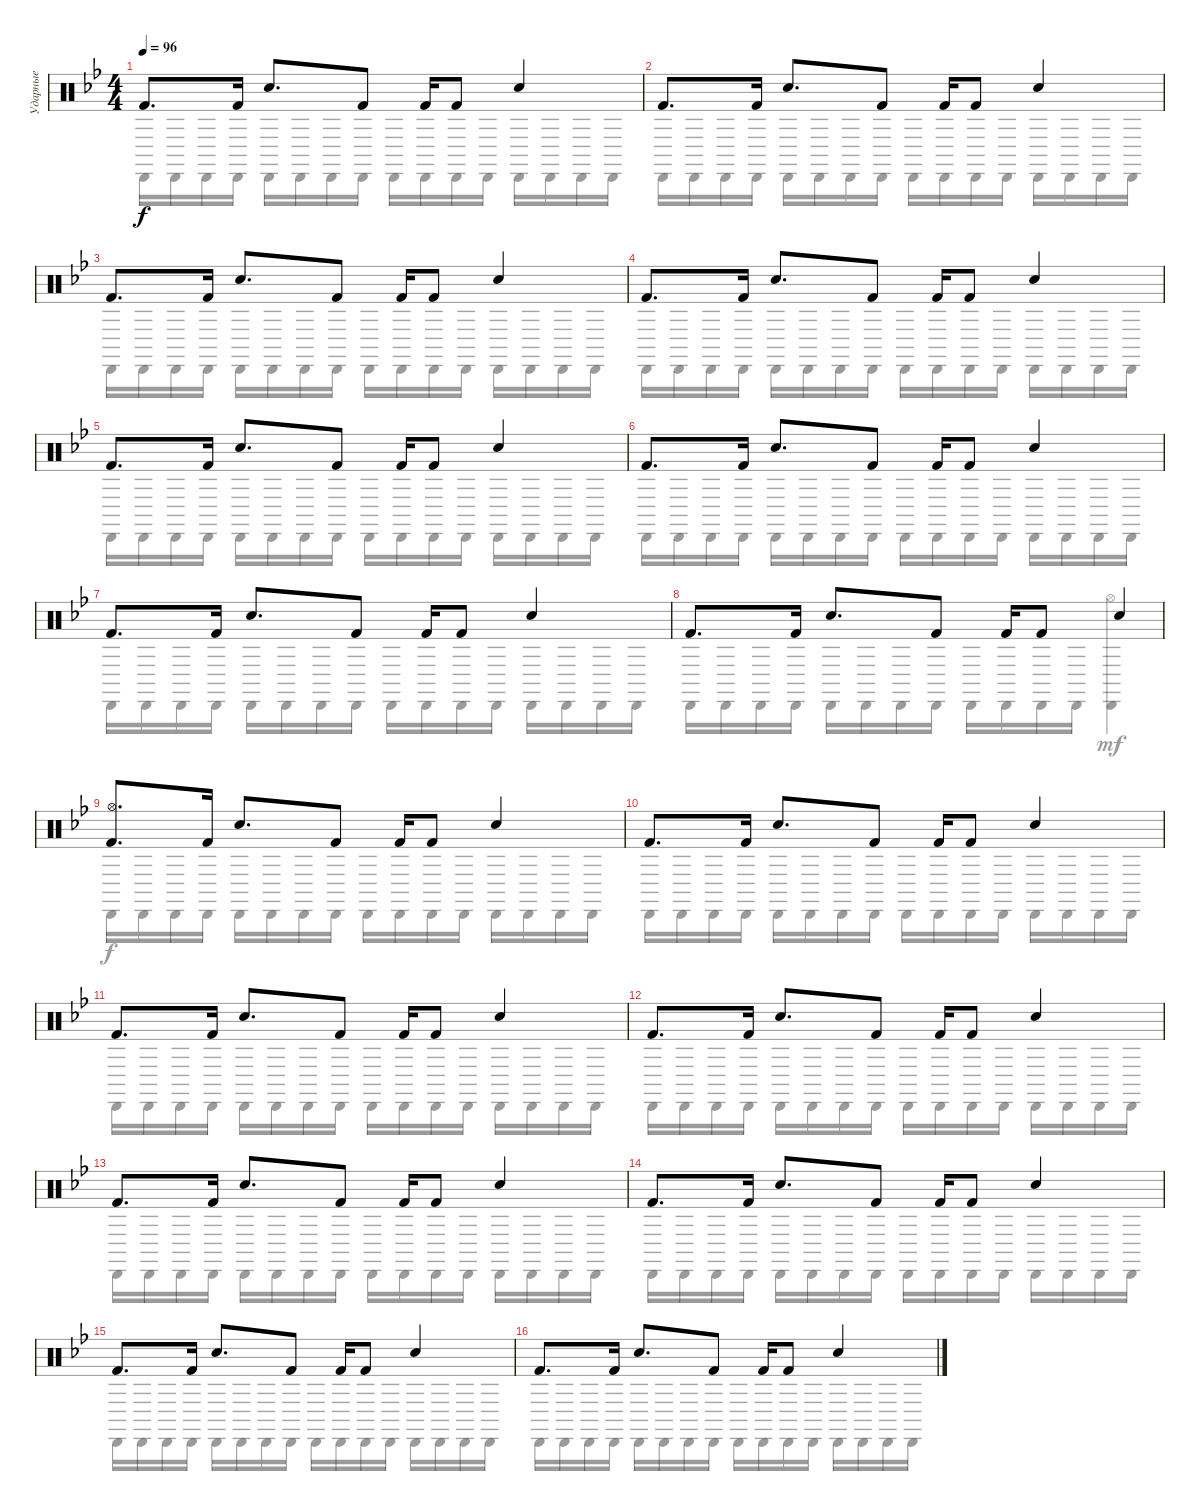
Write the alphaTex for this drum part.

\track ("Ударные" "Ударные") {instrument percussion}
\staff {score}
\articulation defaults
\voice
\ts (4 4)
\tempo 96
\clef neutral
\ks bb "Kick (hit) 2".8{d dy f} "Kick (hit) 2".16 "Hand Clap (hit)".8{d} "Kick (hit) 2".8 "Kick (hit) 2".16 "Kick (hit) 2".8 "Hand Clap (hit)".4
|
"Kick (hit) 2".8{d} "Kick (hit) 2".16 "Hand Clap (hit)".8{d} "Kick (hit) 2".8 "Kick (hit) 2".16 "Kick (hit) 2".8 "Hand Clap (hit)".4 |
"Kick (hit) 2".8{d} "Kick (hit) 2".16 "Hand Clap (hit)".8{d} "Kick (hit) 2".8 "Kick (hit) 2".16 "Kick (hit) 2".8 "Hand Clap (hit)".4 |
"Kick (hit) 2".8{d} "Kick (hit) 2".16 "Hand Clap (hit)".8{d} "Kick (hit) 2".8 "Kick (hit) 2".16 "Kick (hit) 2".8 "Hand Clap (hit)".4 |
"Kick (hit) 2".8{d} "Kick (hit) 2".16 "Hand Clap (hit)".8{d} "Kick (hit) 2".8 "Kick (hit) 2".16 "Kick (hit) 2".8 "Hand Clap (hit)".4 |
"Kick (hit) 2".8{d} "Kick (hit) 2".16 "Hand Clap (hit)".8{d} "Kick (hit) 2".8 "Kick (hit) 2".16 "Kick (hit) 2".8 "Hand Clap (hit)".4 |
"Kick (hit) 2".8{d} "Kick (hit) 2".16 "Hand Clap (hit)".8{d} "Kick (hit) 2".8 "Kick (hit) 2".16 "Kick (hit) 2".8 "Hand Clap (hit)".4 |
"Kick (hit) 2".8{d} "Kick (hit) 2".16 "Hand Clap (hit)".8{d} "Kick (hit) 2".8 "Kick (hit) 2".16 "Kick (hit) 2".8 "Hand Clap (hit)".4 |
("Kick (hit) 2" "Hi-Hat (open)").8{d} "Kick (hit) 2".16 "Hand Clap (hit)".8{d} "Kick (hit) 2".8 "Kick (hit) 2".16 "Kick (hit) 2".8 "Hand Clap (hit)".4 |
"Kick (hit) 2".8{d} "Kick (hit) 2".16 "Hand Clap (hit)".8{d} "Kick (hit) 2".8 "Kick (hit) 2".16 "Kick (hit) 2".8 "Hand Clap (hit)".4 |
"Kick (hit) 2".8{d} "Kick (hit) 2".16 "Hand Clap (hit)".8{d} "Kick (hit) 2".8 "Kick (hit) 2".16 "Kick (hit) 2".8 "Hand Clap (hit)".4 |
"Kick (hit) 2".8{d} "Kick (hit) 2".16 "Hand Clap (hit)".8{d} "Kick (hit) 2".8 "Kick (hit) 2".16 "Kick (hit) 2".8 "Hand Clap (hit)".4 |
"Kick (hit) 2".8{d} "Kick (hit) 2".16 "Hand Clap (hit)".8{d} "Kick (hit) 2".8 "Kick (hit) 2".16 "Kick (hit) 2".8 "Hand Clap (hit)".4 |
"Kick (hit) 2".8{d} "Kick (hit) 2".16 "Hand Clap (hit)".8{d} "Kick (hit) 2".8 "Kick (hit) 2".16 "Kick (hit) 2".8 "Hand Clap (hit)".4 |
"Kick (hit) 2".8{d} "Kick (hit) 2".16 "Hand Clap (hit)".8{d} "Kick (hit) 2".8 "Kick (hit) 2".16 "Kick (hit) 2".8 "Hand Clap (hit)".4 |
"Kick (hit) 2".8{d} "Kick (hit) 2".16 "Hand Clap (hit)".8{d} "Kick (hit) 2".8 "Kick (hit) 2".16 "Kick (hit) 2".8 "Hand Clap (hit)".4
\voice
\clef neutral
\ottava regular
\simile none
\ks bb "Cabasa (hit)".16{dy f} "Cabasa (hit)".16 "Cabasa (hit)".16 "Cabasa (hit)".16 "Cabasa (hit)".16 "Cabasa (hit)".16 "Cabasa (hit)".16 "Cabasa (hit)".16 "Cabasa (hit)".16 "Cabasa (hit)".16 "Cabasa (hit)".16 "Cabasa (hit)".16 "Cabasa (hit)".16 "Cabasa (hit)".16 "Cabasa (hit)".16 "Cabasa (hit)".16
|
"Cabasa (hit)".16 "Cabasa (hit)".16 "Cabasa (hit)".16 "Cabasa (hit)".16 "Cabasa (hit)".16 "Cabasa (hit)".16 "Cabasa (hit)".16 "Cabasa (hit)".16 "Cabasa (hit)".16 "Cabasa (hit)".16 "Cabasa (hit)".16 "Cabasa (hit)".16 "Cabasa (hit)".16 "Cabasa (hit)".16 "Cabasa (hit)".16 "Cabasa (hit)".16 |
"Cabasa (hit)".16 "Cabasa (hit)".16 "Cabasa (hit)".16 "Cabasa (hit)".16 "Cabasa (hit)".16 "Cabasa (hit)".16 "Cabasa (hit)".16 "Cabasa (hit)".16 "Cabasa (hit)".16 "Cabasa (hit)".16 "Cabasa (hit)".16 "Cabasa (hit)".16 "Cabasa (hit)".16 "Cabasa (hit)".16 "Cabasa (hit)".16 "Cabasa (hit)".16 |
"Cabasa (hit)".16 "Cabasa (hit)".16 "Cabasa (hit)".16 "Cabasa (hit)".16 "Cabasa (hit)".16 "Cabasa (hit)".16 "Cabasa (hit)".16 "Cabasa (hit)".16 "Cabasa (hit)".16 "Cabasa (hit)".16 "Cabasa (hit)".16 "Cabasa (hit)".16 "Cabasa (hit)".16 "Cabasa (hit)".16 "Cabasa (hit)".16 "Cabasa (hit)".16 |
"Cabasa (hit)".16 "Cabasa (hit)".16 "Cabasa (hit)".16 "Cabasa (hit)".16 "Cabasa (hit)".16 "Cabasa (hit)".16 "Cabasa (hit)".16 "Cabasa (hit)".16 "Cabasa (hit)".16 "Cabasa (hit)".16 "Cabasa (hit)".16 "Cabasa (hit)".16 "Cabasa (hit)".16 "Cabasa (hit)".16 "Cabasa (hit)".16 "Cabasa (hit)".16 |
"Cabasa (hit)".16 "Cabasa (hit)".16 "Cabasa (hit)".16 "Cabasa (hit)".16 "Cabasa (hit)".16 "Cabasa (hit)".16 "Cabasa (hit)".16 "Cabasa (hit)".16 "Cabasa (hit)".16 "Cabasa (hit)".16 "Cabasa (hit)".16 "Cabasa (hit)".16 "Cabasa (hit)".16 "Cabasa (hit)".16 "Cabasa (hit)".16 "Cabasa (hit)".16 |
"Cabasa (hit)".16 "Cabasa (hit)".16 "Cabasa (hit)".16 "Cabasa (hit)".16 "Cabasa (hit)".16 "Cabasa (hit)".16 "Cabasa (hit)".16 "Cabasa (hit)".16 "Cabasa (hit)".16 "Cabasa (hit)".16 "Cabasa (hit)".16 "Cabasa (hit)".16 "Cabasa (hit)".16 "Cabasa (hit)".16 "Cabasa (hit)".16 "Cabasa (hit)".16 |
"Cabasa (hit)".16 "Cabasa (hit)".16 "Cabasa (hit)".16 "Cabasa (hit)".16 "Cabasa (hit)".16 "Cabasa (hit)".16 "Cabasa (hit)".16 "Cabasa (hit)".16 "Cabasa (hit)".16 "Cabasa (hit)".16 "Cabasa (hit)".16 "Cabasa (hit)".16 ("Hi-Hat (open)" "Cabasa (hit)").4{dy mf} |
"Cabasa (hit)".16{dy f} "Cabasa (hit)".16 "Cabasa (hit)".16 "Cabasa (hit)".16 "Cabasa (hit)".16 "Cabasa (hit)".16 "Cabasa (hit)".16 "Cabasa (hit)".16 "Cabasa (hit)".16 "Cabasa (hit)".16 "Cabasa (hit)".16 "Cabasa (hit)".16 "Cabasa (hit)".16 "Cabasa (hit)".16 "Cabasa (hit)".16 "Cabasa (hit)".16 |
"Cabasa (hit)".16 "Cabasa (hit)".16 "Cabasa (hit)".16 "Cabasa (hit)".16 "Cabasa (hit)".16 "Cabasa (hit)".16 "Cabasa (hit)".16 "Cabasa (hit)".16 "Cabasa (hit)".16 "Cabasa (hit)".16 "Cabasa (hit)".16 "Cabasa (hit)".16 "Cabasa (hit)".16 "Cabasa (hit)".16 "Cabasa (hit)".16 "Cabasa (hit)".16 |
"Cabasa (hit)".16 "Cabasa (hit)".16 "Cabasa (hit)".16 "Cabasa (hit)".16 "Cabasa (hit)".16 "Cabasa (hit)".16 "Cabasa (hit)".16 "Cabasa (hit)".16 "Cabasa (hit)".16 "Cabasa (hit)".16 "Cabasa (hit)".16 "Cabasa (hit)".16 "Cabasa (hit)".16 "Cabasa (hit)".16 "Cabasa (hit)".16 "Cabasa (hit)".16 |
"Cabasa (hit)".16 "Cabasa (hit)".16 "Cabasa (hit)".16 "Cabasa (hit)".16 "Cabasa (hit)".16 "Cabasa (hit)".16 "Cabasa (hit)".16 "Cabasa (hit)".16 "Cabasa (hit)".16 "Cabasa (hit)".16 "Cabasa (hit)".16 "Cabasa (hit)".16 "Cabasa (hit)".16 "Cabasa (hit)".16 "Cabasa (hit)".16 "Cabasa (hit)".16 |
"Cabasa (hit)".16 "Cabasa (hit)".16 "Cabasa (hit)".16 "Cabasa (hit)".16 "Cabasa (hit)".16 "Cabasa (hit)".16 "Cabasa (hit)".16 "Cabasa (hit)".16 "Cabasa (hit)".16 "Cabasa (hit)".16 "Cabasa (hit)".16 "Cabasa (hit)".16 "Cabasa (hit)".16 "Cabasa (hit)".16 "Cabasa (hit)".16 "Cabasa (hit)".16 |
"Cabasa (hit)".16 "Cabasa (hit)".16 "Cabasa (hit)".16 "Cabasa (hit)".16 "Cabasa (hit)".16 "Cabasa (hit)".16 "Cabasa (hit)".16 "Cabasa (hit)".16 "Cabasa (hit)".16 "Cabasa (hit)".16 "Cabasa (hit)".16 "Cabasa (hit)".16 "Cabasa (hit)".16 "Cabasa (hit)".16 "Cabasa (hit)".16 "Cabasa (hit)".16 |
"Cabasa (hit)".16 "Cabasa (hit)".16 "Cabasa (hit)".16 "Cabasa (hit)".16 "Cabasa (hit)".16 "Cabasa (hit)".16 "Cabasa (hit)".16 "Cabasa (hit)".16 "Cabasa (hit)".16 "Cabasa (hit)".16 "Cabasa (hit)".16 "Cabasa (hit)".16 "Cabasa (hit)".16 "Cabasa (hit)".16 "Cabasa (hit)".16 "Cabasa (hit)".16 |
"Cabasa (hit)".16 "Cabasa (hit)".16 "Cabasa (hit)".16 "Cabasa (hit)".16 "Cabasa (hit)".16 "Cabasa (hit)".16 "Cabasa (hit)".16 "Cabasa (hit)".16 "Cabasa (hit)".16 "Cabasa (hit)".16 "Cabasa (hit)".16 "Cabasa (hit)".16 "Cabasa (hit)".16 "Cabasa (hit)".16 "Cabasa (hit)".16 "Cabasa (hit)".16
